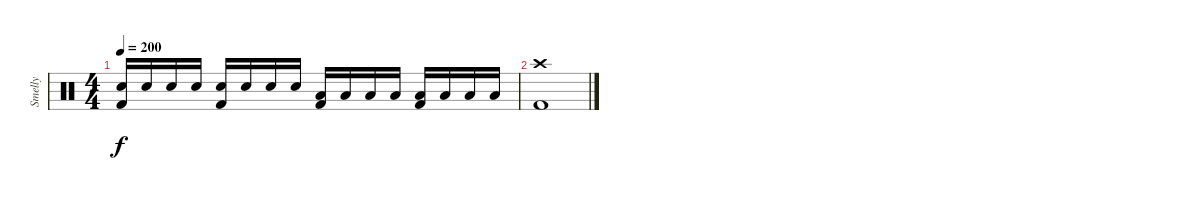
\track ("Smelly" "Smelly") {instrument percussion}
\staff {score}
\articulation defaults
\ts (4 4)
\tempo 200
\clef neutral
\ks c
("Electric Snare (hit)" "Kick (hit) 2").16{dy f} "Electric Snare (hit)".16 "Electric Snare (hit)".16 "Electric Snare (hit)".16 ("Electric Snare (hit)" "Kick (hit) 2").16 "Electric Snare (hit)".16 "Electric Snare (hit)".16 "Electric Snare (hit)".16 ("Low Tom (hit)" "Kick (hit) 2").16 "Low Tom (hit)".16 "Low Tom (hit)".16 "Low Tom (hit)".16 ("Low Tom (hit)" "Kick (hit) 2").16 "Low Tom (hit)".16 "Low Floor Tom (hit)".16 "Low Floor Tom (hit)".16 |
("Crash high (hit)" "Kick (hit) 2").1
